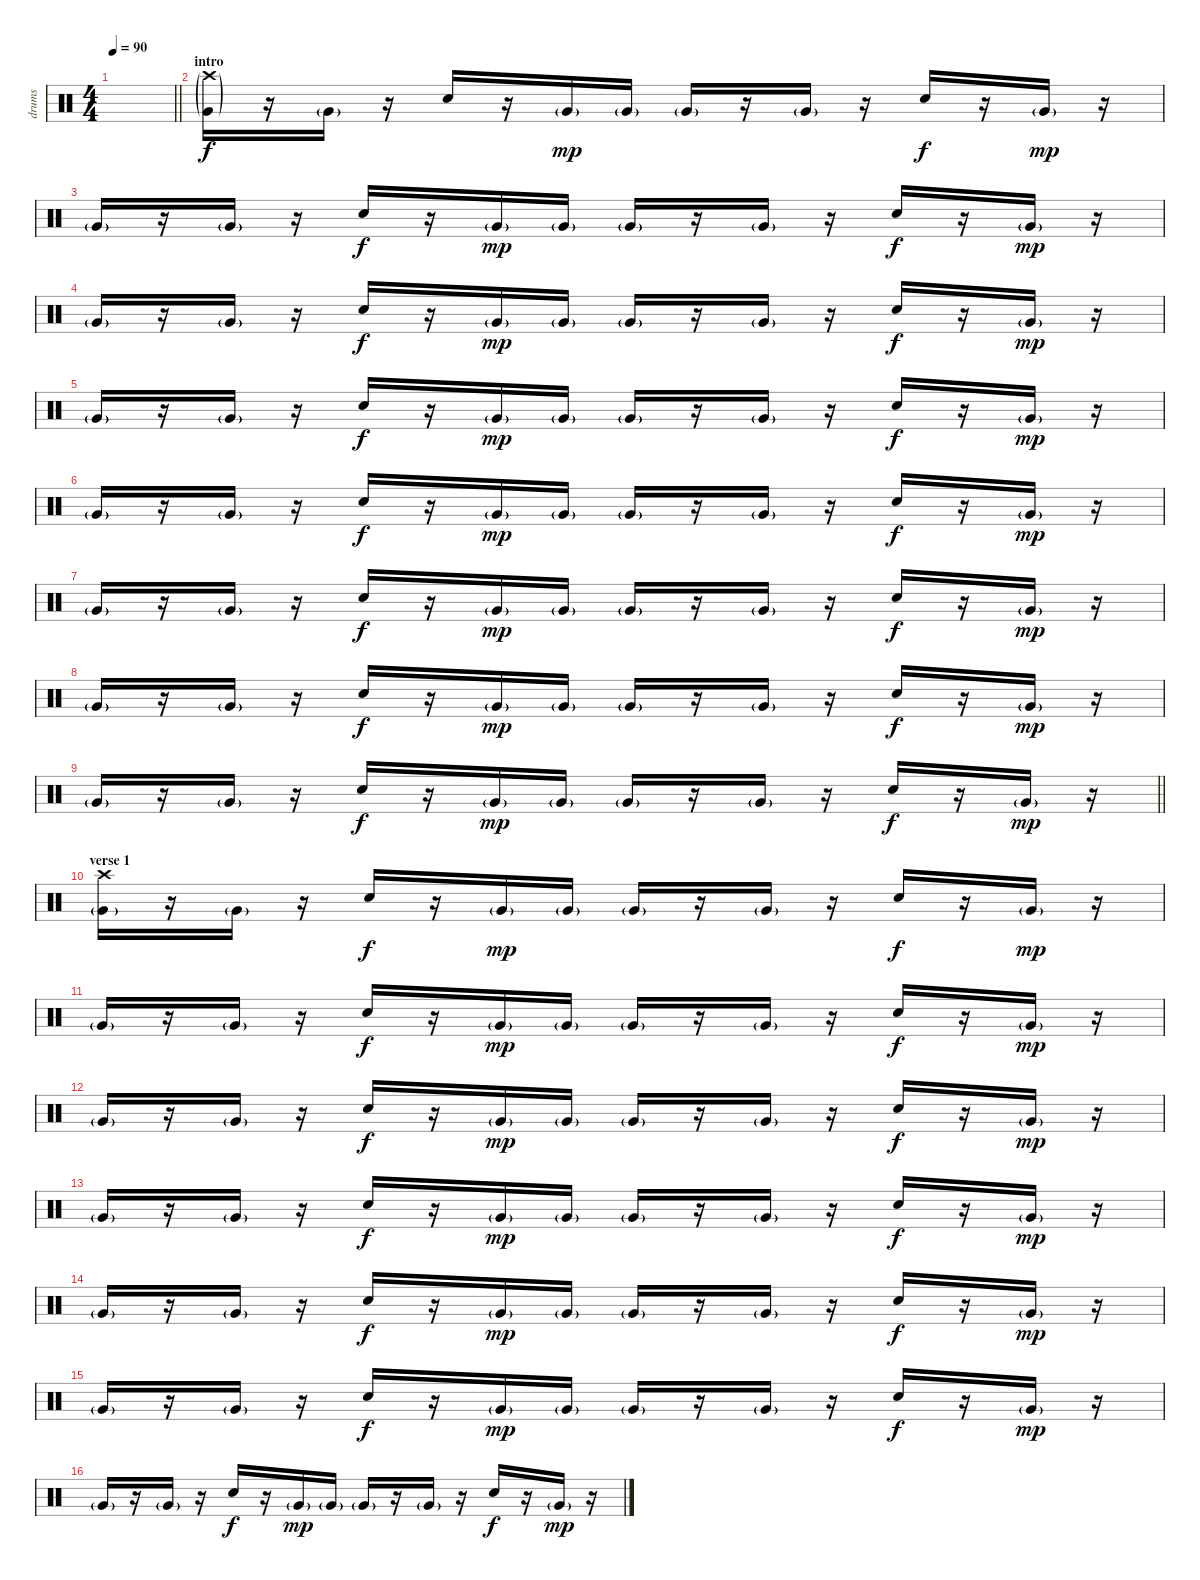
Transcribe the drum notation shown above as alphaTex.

\track ("drums" "drums") {instrument percussion}
\staff {score}
\articulation defaults
\ts (4 4)
\tempo 90
\clef neutral
\barLineRight lightlight
\ks c
|
\section ("" "intro")
("Very Low Tom (hit)"{g} "Crash high (hit)"{g}).16 r.16 "Very Low Tom (hit)"{g}.16 r.16 "Electric Snare (hit)".16{dy f} r.16 "Very Low Tom (hit)"{g}.16{dy mp} "Very Low Tom (hit)"{g}.16 "Very Low Tom (hit)"{g}.16 r.16 "Very Low Tom (hit)"{g}.16 r.16 "Electric Snare (hit)".16{dy f} r.16 "Very Low Tom (hit)"{g}.16{dy mp} r.16 |
"Very Low Tom (hit)"{g}.16 r.16 "Very Low Tom (hit)"{g}.16 r.16 "Electric Snare (hit)".16{dy f} r.16 "Very Low Tom (hit)"{g}.16{dy mp} "Very Low Tom (hit)"{g}.16 "Very Low Tom (hit)"{g}.16 r.16 "Very Low Tom (hit)"{g}.16 r.16 "Electric Snare (hit)".16{dy f} r.16 "Very Low Tom (hit)"{g}.16{dy mp} r.16 |
"Very Low Tom (hit)"{g}.16 r.16 "Very Low Tom (hit)"{g}.16 r.16 "Electric Snare (hit)".16{dy f} r.16 "Very Low Tom (hit)"{g}.16{dy mp} "Very Low Tom (hit)"{g}.16 "Very Low Tom (hit)"{g}.16 r.16 "Very Low Tom (hit)"{g}.16 r.16 "Electric Snare (hit)".16{dy f} r.16 "Very Low Tom (hit)"{g}.16{dy mp} r.16 |
"Very Low Tom (hit)"{g}.16 r.16 "Very Low Tom (hit)"{g}.16 r.16 "Electric Snare (hit)".16{dy f} r.16 "Very Low Tom (hit)"{g}.16{dy mp} "Very Low Tom (hit)"{g}.16 "Very Low Tom (hit)"{g}.16 r.16 "Very Low Tom (hit)"{g}.16 r.16 "Electric Snare (hit)".16{dy f} r.16 "Very Low Tom (hit)"{g}.16{dy mp} r.16 |
"Very Low Tom (hit)"{g}.16 r.16 "Very Low Tom (hit)"{g}.16 r.16 "Electric Snare (hit)".16{dy f} r.16 "Very Low Tom (hit)"{g}.16{dy mp} "Very Low Tom (hit)"{g}.16 "Very Low Tom (hit)"{g}.16 r.16 "Very Low Tom (hit)"{g}.16 r.16 "Electric Snare (hit)".16{dy f} r.16 "Very Low Tom (hit)"{g}.16{dy mp} r.16 |
"Very Low Tom (hit)"{g}.16 r.16 "Very Low Tom (hit)"{g}.16 r.16 "Electric Snare (hit)".16{dy f} r.16 "Very Low Tom (hit)"{g}.16{dy mp} "Very Low Tom (hit)"{g}.16 "Very Low Tom (hit)"{g}.16 r.16 "Very Low Tom (hit)"{g}.16 r.16 "Electric Snare (hit)".16{dy f} r.16 "Very Low Tom (hit)"{g}.16{dy mp} r.16 |
"Very Low Tom (hit)"{g}.16 r.16 "Very Low Tom (hit)"{g}.16 r.16 "Electric Snare (hit)".16{dy f} r.16 "Very Low Tom (hit)"{g}.16{dy mp} "Very Low Tom (hit)"{g}.16 "Very Low Tom (hit)"{g}.16 r.16 "Very Low Tom (hit)"{g}.16 r.16 "Electric Snare (hit)".16{dy f} r.16 "Very Low Tom (hit)"{g}.16{dy mp} r.16 |
\barLineRight lightlight "Very Low Tom (hit)"{g}.16
r.16 "Very Low Tom (hit)"{g}.16 r.16 "Electric Snare (hit)".16{dy f} r.16 "Very Low Tom (hit)"{g}.16{dy mp} "Very Low Tom (hit)"{g}.16 "Very Low Tom (hit)"{g}.16 r.16 "Very Low Tom (hit)"{g}.16 r.16 "Electric Snare (hit)".16{dy f} r.16 "Very Low Tom (hit)"{g}.16{dy mp} r.16 |
\section ("" "verse 1 ")
("Very Low Tom (hit)"{g} "Crash high (hit)").16 r.16 "Very Low Tom (hit)"{g}.16 r.16 "Electric Snare (hit)".16{dy f} r.16 "Very Low Tom (hit)"{g}.16{dy mp} "Very Low Tom (hit)"{g}.16 "Very Low Tom (hit)"{g}.16 r.16 "Very Low Tom (hit)"{g}.16 r.16 "Electric Snare (hit)".16{dy f} r.16 "Very Low Tom (hit)"{g}.16{dy mp} r.16 |
"Very Low Tom (hit)"{g}.16 r.16 "Very Low Tom (hit)"{g}.16 r.16 "Electric Snare (hit)".16{dy f} r.16 "Very Low Tom (hit)"{g}.16{dy mp} "Very Low Tom (hit)"{g}.16 "Very Low Tom (hit)"{g}.16 r.16 "Very Low Tom (hit)"{g}.16 r.16 "Electric Snare (hit)".16{dy f} r.16 "Very Low Tom (hit)"{g}.16{dy mp} r.16 |
"Very Low Tom (hit)"{g}.16 r.16 "Very Low Tom (hit)"{g}.16 r.16 "Electric Snare (hit)".16{dy f} r.16 "Very Low Tom (hit)"{g}.16{dy mp} "Very Low Tom (hit)"{g}.16 "Very Low Tom (hit)"{g}.16 r.16 "Very Low Tom (hit)"{g}.16 r.16 "Electric Snare (hit)".16{dy f} r.16 "Very Low Tom (hit)"{g}.16{dy mp} r.16 |
"Very Low Tom (hit)"{g}.16 r.16 "Very Low Tom (hit)"{g}.16 r.16 "Electric Snare (hit)".16{dy f} r.16 "Very Low Tom (hit)"{g}.16{dy mp} "Very Low Tom (hit)"{g}.16 "Very Low Tom (hit)"{g}.16 r.16 "Very Low Tom (hit)"{g}.16 r.16 "Electric Snare (hit)".16{dy f} r.16 "Very Low Tom (hit)"{g}.16{dy mp} r.16 |
"Very Low Tom (hit)"{g}.16 r.16 "Very Low Tom (hit)"{g}.16 r.16 "Electric Snare (hit)".16{dy f} r.16 "Very Low Tom (hit)"{g}.16{dy mp} "Very Low Tom (hit)"{g}.16 "Very Low Tom (hit)"{g}.16 r.16 "Very Low Tom (hit)"{g}.16 r.16 "Electric Snare (hit)".16{dy f} r.16 "Very Low Tom (hit)"{g}.16{dy mp} r.16 |
"Very Low Tom (hit)"{g}.16 r.16 "Very Low Tom (hit)"{g}.16 r.16 "Electric Snare (hit)".16{dy f} r.16 "Very Low Tom (hit)"{g}.16{dy mp} "Very Low Tom (hit)"{g}.16 "Very Low Tom (hit)"{g}.16 r.16 "Very Low Tom (hit)"{g}.16 r.16 "Electric Snare (hit)".16{dy f} r.16 "Very Low Tom (hit)"{g}.16{dy mp} r.16 |
"Very Low Tom (hit)"{g}.16 r.16 "Very Low Tom (hit)"{g}.16 r.16 "Electric Snare (hit)".16{dy f} r.16 "Very Low Tom (hit)"{g}.16{dy mp} "Very Low Tom (hit)"{g}.16 "Very Low Tom (hit)"{g}.16 r.16 "Very Low Tom (hit)"{g}.16 r.16 "Electric Snare (hit)".16{dy f} r.16 "Very Low Tom (hit)"{g}.16{dy mp} r.16
